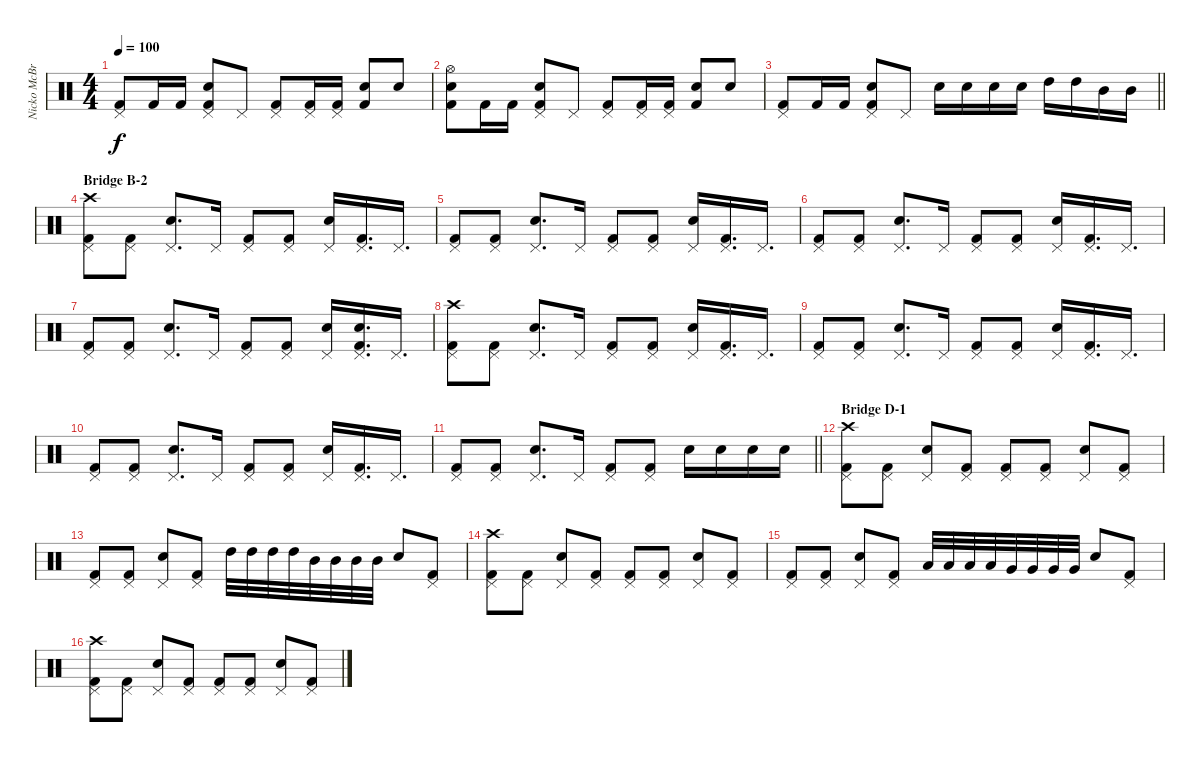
\track ("Nicko McBrain" "Nicko McBr") {instrument percussion}
\staff {score}
\articulation defaults
\ts (4 4)
\tempo 100
\clef neutral
\ks c
("Pedal Hi-Hat (hit)" "Kick (hit) 2").8{dy f} "Kick (hit) 2".16 "Kick (hit) 2".16 ("Electric Snare (hit)" "Pedal Hi-Hat (hit)" "Kick (hit) 2").8 "Pedal Hi-Hat (hit)".8 ("Pedal Hi-Hat (hit)" "Kick (hit) 2").8 ("Pedal Hi-Hat (hit)" "Kick (hit) 2").16 ("Pedal Hi-Hat (hit)" "Kick (hit) 2").16 ("Electric Snare (hit)" "Kick (hit) 2").8 "Electric Snare (hit)".8 |
("Hi-Hat (open)" "Electric Snare (hit)" "Kick (hit) 2").8 "Kick (hit) 2".16 "Kick (hit) 2".16 ("Electric Snare (hit)" "Pedal Hi-Hat (hit)" "Kick (hit) 2").8 "Pedal Hi-Hat (hit)".8 ("Pedal Hi-Hat (hit)" "Kick (hit) 2").8 ("Pedal Hi-Hat (hit)" "Kick (hit) 2").16 ("Pedal Hi-Hat (hit)" "Kick (hit) 2").16 ("Electric Snare (hit)" "Kick (hit) 2").8 "Electric Snare (hit)".8 |
\barLineRight lightlight
("Pedal Hi-Hat (hit)" "Kick (hit) 2").8 "Kick (hit) 2".16 "Kick (hit) 2".16 ("Electric Snare (hit)" "Pedal Hi-Hat (hit)" "Kick (hit) 2").8 "Pedal Hi-Hat (hit)".8 "Electric Snare (hit)".16 "Electric Snare (hit)".16 "Electric Snare (hit)".16 "Electric Snare (hit)".16 "High Tom (hit)".16 "High Tom (hit)".16 "Mid Tom (hit)".16 "Mid Tom (hit)".16 |
\section ("" "Bridge B-2")
("Pedal Hi-Hat (hit)" "Crash high (hit)" "Kick (hit) 2").8 ("Pedal Hi-Hat (hit)" "Kick (hit) 2").8 ("Electric Snare (hit)" "Pedal Hi-Hat (hit)").8{d} "Pedal Hi-Hat (hit)".16 ("Pedal Hi-Hat (hit)" "Kick (hit) 2").8 ("Pedal Hi-Hat (hit)" "Kick (hit) 2").8 ("Electric Snare (hit)" "Pedal Hi-Hat (hit)").16 ("Pedal Hi-Hat (hit)" "Kick (hit) 2").16{d} "Pedal Hi-Hat (hit)".16{d} |
("Pedal Hi-Hat (hit)" "Kick (hit) 2").8 ("Pedal Hi-Hat (hit)" "Kick (hit) 2").8 ("Electric Snare (hit)" "Pedal Hi-Hat (hit)").8{d} "Pedal Hi-Hat (hit)".16 ("Pedal Hi-Hat (hit)" "Kick (hit) 2").8 ("Pedal Hi-Hat (hit)" "Kick (hit) 2").8 ("Electric Snare (hit)" "Pedal Hi-Hat (hit)").16 ("Pedal Hi-Hat (hit)" "Kick (hit) 2").16{d} "Pedal Hi-Hat (hit)".16{d} |
("Pedal Hi-Hat (hit)" "Kick (hit) 2").8 ("Pedal Hi-Hat (hit)" "Kick (hit) 2").8 ("Electric Snare (hit)" "Pedal Hi-Hat (hit)").8{d} "Pedal Hi-Hat (hit)".16 ("Pedal Hi-Hat (hit)" "Kick (hit) 2").8 ("Pedal Hi-Hat (hit)" "Kick (hit) 2").8 ("Electric Snare (hit)" "Pedal Hi-Hat (hit)").16 ("Pedal Hi-Hat (hit)" "Kick (hit) 2").16{d} "Pedal Hi-Hat (hit)".16{d} |
("Pedal Hi-Hat (hit)" "Kick (hit) 2").8 ("Pedal Hi-Hat (hit)" "Kick (hit) 2").8 ("Electric Snare (hit)" "Pedal Hi-Hat (hit)").8{d} "Pedal Hi-Hat (hit)".16 ("Pedal Hi-Hat (hit)" "Kick (hit) 2").8 ("Pedal Hi-Hat (hit)" "Kick (hit) 2").8 ("Electric Snare (hit)" "Pedal Hi-Hat (hit)").16 ("Pedal Hi-Hat (hit)" "Electric Snare (hit)" "Kick (hit) 2").16{d} "Pedal Hi-Hat (hit)".16{d} |
("Pedal Hi-Hat (hit)" "Crash high (hit)" "Kick (hit) 2").8 ("Pedal Hi-Hat (hit)" "Kick (hit) 2").8 ("Electric Snare (hit)" "Pedal Hi-Hat (hit)").8{d} "Pedal Hi-Hat (hit)".16 ("Pedal Hi-Hat (hit)" "Kick (hit) 2").8 ("Pedal Hi-Hat (hit)" "Kick (hit) 2").8 ("Electric Snare (hit)" "Pedal Hi-Hat (hit)").16 ("Pedal Hi-Hat (hit)" "Kick (hit) 2").16{d} "Pedal Hi-Hat (hit)".16{d} |
("Pedal Hi-Hat (hit)" "Kick (hit) 2").8 ("Pedal Hi-Hat (hit)" "Kick (hit) 2").8 ("Electric Snare (hit)" "Pedal Hi-Hat (hit)").8{d} "Pedal Hi-Hat (hit)".16 ("Pedal Hi-Hat (hit)" "Kick (hit) 2").8 ("Pedal Hi-Hat (hit)" "Kick (hit) 2").8 ("Electric Snare (hit)" "Pedal Hi-Hat (hit)").16 ("Pedal Hi-Hat (hit)" "Kick (hit) 2").16{d} "Pedal Hi-Hat (hit)".16{d} |
("Pedal Hi-Hat (hit)" "Kick (hit) 2").8 ("Pedal Hi-Hat (hit)" "Kick (hit) 2").8 ("Electric Snare (hit)" "Pedal Hi-Hat (hit)").8{d} "Pedal Hi-Hat (hit)".16 ("Pedal Hi-Hat (hit)" "Kick (hit) 2").8 ("Pedal Hi-Hat (hit)" "Kick (hit) 2").8 ("Electric Snare (hit)" "Pedal Hi-Hat (hit)").16 ("Pedal Hi-Hat (hit)" "Kick (hit) 2").16{d} "Pedal Hi-Hat (hit)".16{d} |
\barLineRight lightlight
("Pedal Hi-Hat (hit)" "Kick (hit) 2").8 ("Pedal Hi-Hat (hit)" "Kick (hit) 2").8 ("Electric Snare (hit)" "Pedal Hi-Hat (hit)").8{d} "Pedal Hi-Hat (hit)".16 ("Pedal Hi-Hat (hit)" "Kick (hit) 2").8 ("Pedal Hi-Hat (hit)" "Kick (hit) 2").8 "Electric Snare (hit)".16 "Electric Snare (hit)".16 "Electric Snare (hit)".16 "Electric Snare (hit)".16 |
\section ("" "Bridge D-1")
("Pedal Hi-Hat (hit)" "Crash high (hit)" "Kick (hit) 2").8 ("Pedal Hi-Hat (hit)" "Kick (hit) 2").8 ("Electric Snare (hit)" "Pedal Hi-Hat (hit)").8 ("Pedal Hi-Hat (hit)" "Kick (hit) 2").8 ("Pedal Hi-Hat (hit)" "Kick (hit) 2").8 ("Pedal Hi-Hat (hit)" "Kick (hit) 2").8 ("Electric Snare (hit)" "Pedal Hi-Hat (hit)").8 ("Pedal Hi-Hat (hit)" "Kick (hit) 2").8 |
("Pedal Hi-Hat (hit)" "Kick (hit) 2").8 ("Pedal Hi-Hat (hit)" "Kick (hit) 2").8 ("Electric Snare (hit)" "Pedal Hi-Hat (hit)").8 ("Pedal Hi-Hat (hit)" "Kick (hit) 2").8 "High Tom (hit)".32 "High Tom (hit)".32 "High Tom (hit)".32 "High Tom (hit)".32 "Mid Tom (hit)".32 "Mid Tom (hit)".32 "Mid Tom (hit)".32 "Mid Tom (hit)".32 "Electric Snare (hit)".8 ("Pedal Hi-Hat (hit)" "Kick (hit) 2").8 |
("Pedal Hi-Hat (hit)" "Crash high (hit)" "Kick (hit) 2").8 ("Pedal Hi-Hat (hit)" "Kick (hit) 2").8 ("Electric Snare (hit)" "Pedal Hi-Hat (hit)").8 ("Pedal Hi-Hat (hit)" "Kick (hit) 2").8 ("Pedal Hi-Hat (hit)" "Kick (hit) 2").8 ("Pedal Hi-Hat (hit)" "Kick (hit) 2").8 ("Electric Snare (hit)" "Pedal Hi-Hat (hit)").8 ("Pedal Hi-Hat (hit)" "Kick (hit) 2").8 |
("Pedal Hi-Hat (hit)" "Kick (hit) 2").8 ("Pedal Hi-Hat (hit)" "Kick (hit) 2").8 ("Electric Snare (hit)" "Pedal Hi-Hat (hit)").8 ("Pedal Hi-Hat (hit)" "Kick (hit) 2").8 "Low Tom (hit)".32 "Low Tom (hit)".32 "Low Tom (hit)".32 "Low Tom (hit)".32 "Very Low Tom (hit)".32 "Very Low Tom (hit)".32 "Very Low Tom (hit)".32 "Very Low Tom (hit)".32 "Electric Snare (hit)".8 ("Pedal Hi-Hat (hit)" "Kick (hit) 2").8 |
("Pedal Hi-Hat (hit)" "Crash high (hit)" "Kick (hit) 2").8 ("Pedal Hi-Hat (hit)" "Kick (hit) 2").8 ("Electric Snare (hit)" "Pedal Hi-Hat (hit)").8 ("Pedal Hi-Hat (hit)" "Kick (hit) 2").8 ("Pedal Hi-Hat (hit)" "Kick (hit) 2").8 ("Pedal Hi-Hat (hit)" "Kick (hit) 2").8 ("Electric Snare (hit)" "Pedal Hi-Hat (hit)").8 ("Pedal Hi-Hat (hit)" "Kick (hit) 2").8
